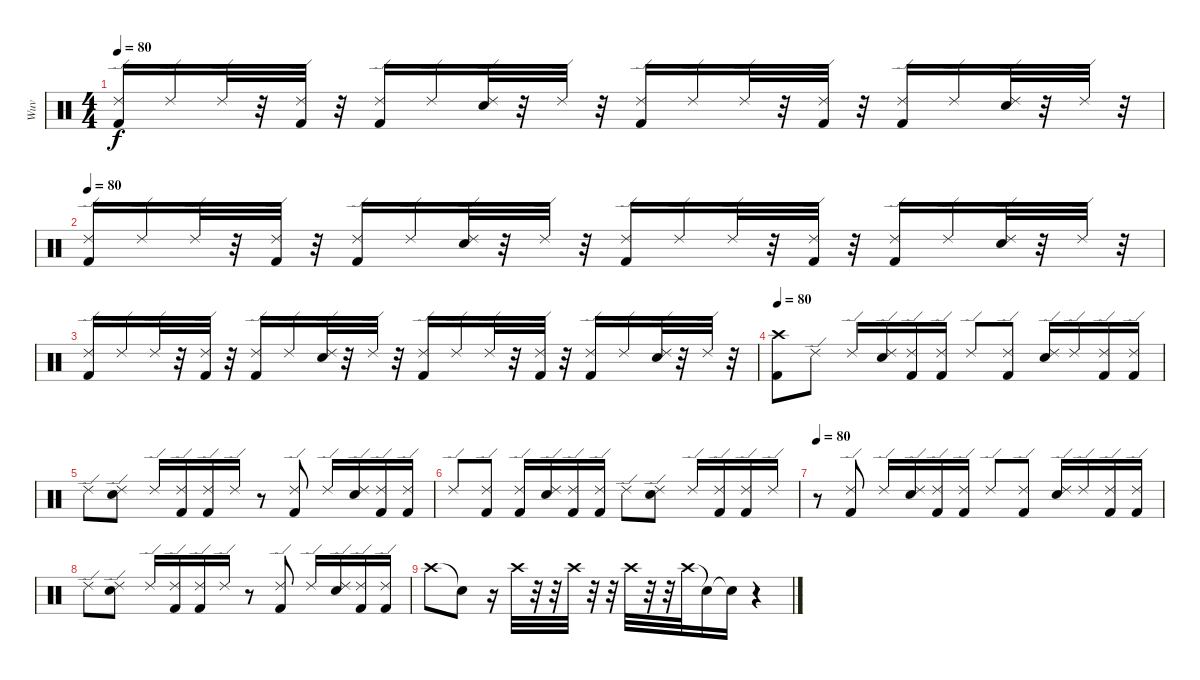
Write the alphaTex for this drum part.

\track ("Wuv" "Wuv") {instrument percussion}
\staff {score}
\articulation defaults
\ts (4 4)
\tempo 80
\clef neutral
\ks c
("Ride (edge) 2" "Kick (hit) 2").16{dy f} "Ride (edge) 2".16 "Ride (edge) 2".32 r.32 ("Ride (edge) 2" "Kick (hit) 2").32 r.32 ("Ride (edge) 2" "Kick (hit) 2").16 "Ride (edge) 2".16 ("Ride (edge) 2" "Snare (hit) 2").32 r.32 "Ride (edge) 2".32 r.32 ("Ride (edge) 2" "Kick (hit) 2").16 "Ride (edge) 2".16 "Ride (edge) 2".32 r.32 ("Ride (edge) 2" "Kick (hit) 2").32 r.32 ("Ride (edge) 2" "Kick (hit) 2").16 "Ride (edge) 2".16 ("Ride (edge) 2" "Snare (hit) 2").32 r.32 "Ride (edge) 2".32 r.32 |
\tempo 80
("Ride (edge) 2" "Kick (hit) 2").16 "Ride (edge) 2".16 "Ride (edge) 2".32 r.32 ("Ride (edge) 2" "Kick (hit) 2").32 r.32 ("Ride (edge) 2" "Kick (hit) 2").16 "Ride (edge) 2".16 ("Ride (edge) 2" "Snare (hit) 2").32 r.32 "Ride (edge) 2".32 r.32 ("Ride (edge) 2" "Kick (hit) 2").16 "Ride (edge) 2".16 "Ride (edge) 2".32 r.32 ("Ride (edge) 2" "Kick (hit) 2").32 r.32 ("Ride (edge) 2" "Kick (hit) 2").16 "Ride (edge) 2".16 ("Ride (edge) 2" "Snare (hit) 2").32 r.32 "Ride (edge) 2".32 r.32 |
("Ride (edge) 2" "Kick (hit) 2").16 "Ride (edge) 2".16 "Ride (edge) 2".32 r.32 ("Ride (edge) 2" "Kick (hit) 2").32 r.32 ("Ride (edge) 2" "Kick (hit) 2").16 "Ride (edge) 2".16 ("Ride (edge) 2" "Snare (hit) 2").32 r.32 "Ride (edge) 2".32 r.32 ("Ride (edge) 2" "Kick (hit) 2").16 "Ride (edge) 2".16 "Ride (edge) 2".32 r.32 ("Ride (edge) 2" "Kick (hit) 2").32 r.32 ("Ride (edge) 2" "Kick (hit) 2").16 "Ride (edge) 2".16 ("Ride (edge) 2" "Snare (hit) 2").32 r.32 "Ride (edge) 2".32 r.32 |
\tempo 80
("Crash high (hit)" "Kick (hit) 2").8 "Ride (edge) 2".8 "Ride (edge) 2".16 ("Ride (edge) 2" "Snare (hit) 2").16 ("Ride (edge) 2" "Kick (hit) 2").16 ("Ride (edge) 2" "Kick (hit) 2").16 "Ride (edge) 2".8 ("Ride (edge) 2" "Kick (hit) 2").8 ("Ride (edge) 2" "Snare (hit) 2").16 "Ride (edge) 2".16 ("Ride (edge) 2" "Kick (hit) 2").16 ("Ride (edge) 2" "Kick (hit) 2").16 |
"Ride (edge) 2".8 ("Ride (edge) 2" "Snare (hit) 2").8 "Ride (edge) 2".16 ("Ride (edge) 2" "Kick (hit) 2").16 ("Ride (edge) 2" "Kick (hit) 2").16 "Ride (edge) 2".16 r.8 ("Ride (edge) 2" "Kick (hit) 2").8 "Ride (edge) 2".16 ("Ride (edge) 2" "Snare (hit) 2").16 ("Ride (edge) 2" "Kick (hit) 2").16 ("Ride (edge) 2" "Kick (hit) 2").16 |
"Ride (edge) 2".8 ("Ride (edge) 2" "Kick (hit) 2").8 ("Ride (edge) 2" "Kick (hit) 2").16 ("Ride (edge) 2" "Snare (hit) 2").16 ("Ride (edge) 2" "Kick (hit) 2").16 ("Ride (edge) 2" "Kick (hit) 2").16 "Ride (edge) 2".8 ("Ride (edge) 2" "Snare (hit) 2").8 "Ride (edge) 2".16 ("Ride (edge) 2" "Kick (hit) 2").16 ("Ride (edge) 2" "Kick (hit) 2").16 "Ride (edge) 2".16 |
\tempo 80
r.8 ("Ride (edge) 2" "Kick (hit) 2").8 "Ride (edge) 2".16 ("Ride (edge) 2" "Snare (hit) 2").16 ("Ride (edge) 2" "Kick (hit) 2").16 ("Ride (edge) 2" "Kick (hit) 2").16 "Ride (edge) 2".8 ("Ride (edge) 2" "Kick (hit) 2").8 ("Ride (edge) 2" "Snare (hit) 2").16 "Ride (edge) 2".16 ("Ride (edge) 2" "Kick (hit) 2").16 ("Ride (edge) 2" "Kick (hit) 2").16 |
"Ride (edge) 2".8 ("Ride (edge) 2" "Snare (hit) 2").8 "Ride (edge) 2".16 ("Ride (edge) 2" "Kick (hit) 2").16 ("Ride (edge) 2" "Kick (hit) 2").16 "Ride (edge) 2".16 r.8 ("Ride (edge) 2" "Kick (hit) 2").8 "Ride (edge) 2".16 ("Ride (edge) 2" "Snare (hit) 2").16 ("Ride (edge) 2" "Kick (hit) 2").16 ("Ride (edge) 2" "Kick (hit) 2").16 |
"Crash high (hit)".8 "Snare (hit)"{t}.8 r.16 "Crash high (hit)".32 r.32 r.32 "Crash high (hit)".32 r.32 r.32 "Crash high (hit)".32 r.32 r.32 "Crash high (hit)".32 "Snare (hit)"{t}.16 "Snare (hit)"{t}.16 r.4
